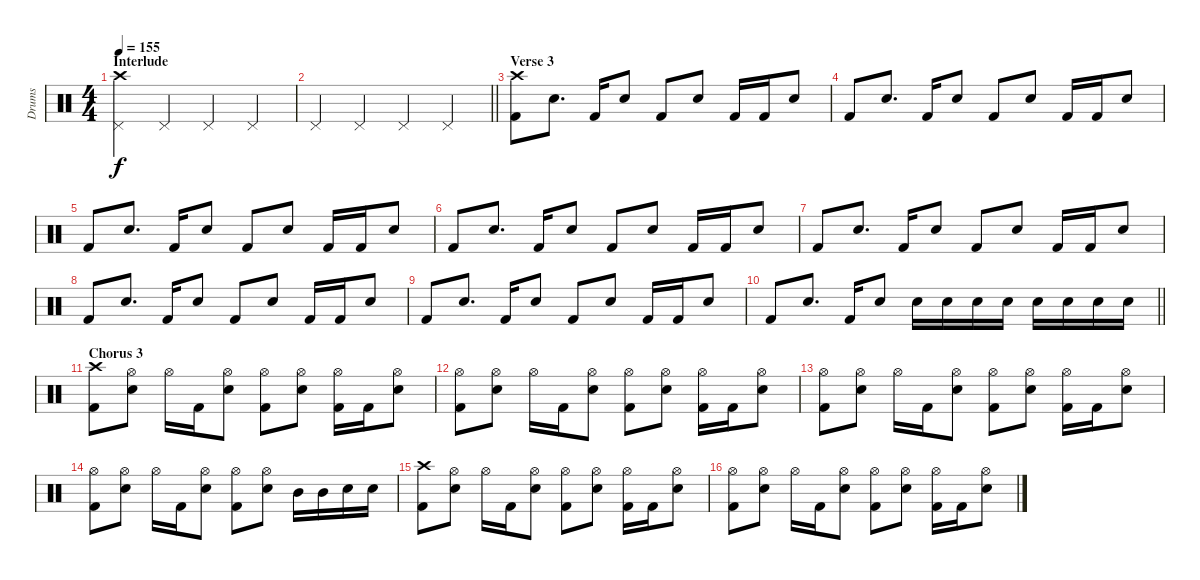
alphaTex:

\track ("Drums" "Drums") {instrument percussion}
\staff {score}
\articulation defaults
\ts (4 4)
\section ("" "Interlude")
\tempo 155
\clef neutral
\ks c
("Crash high (hit)" "Pedal Hi-Hat (hit)").4{dy f} "Pedal Hi-Hat (hit)".4 "Pedal Hi-Hat (hit)".4 "Pedal Hi-Hat (hit)".4 |
\barLineRight lightlight "Pedal Hi-Hat (hit)".4 "Pedal Hi-Hat (hit)".4 "Pedal Hi-Hat (hit)".4 "Pedal Hi-Hat (hit)".4
|
\section ("" "Verse 3")
("Crash high (hit)" "Kick (hit) 2").8 "Electric Snare (hit)".8{d} "Kick (hit) 2".16 "Electric Snare (hit)".8 "Kick (hit) 2".8 "Electric Snare (hit)".8 "Kick (hit) 2".16 "Kick (hit) 2".16 "Electric Snare (hit)".8 |
"Kick (hit) 2".8 "Electric Snare (hit)".8{d} "Kick (hit) 2".16 "Electric Snare (hit)".8 "Kick (hit) 2".8 "Electric Snare (hit)".8 "Kick (hit) 2".16 "Kick (hit) 2".16 "Electric Snare (hit)".8 |
"Kick (hit) 2".8 "Electric Snare (hit)".8{d} "Kick (hit) 2".16 "Electric Snare (hit)".8 "Kick (hit) 2".8 "Electric Snare (hit)".8 "Kick (hit) 2".16 "Kick (hit) 2".16 "Electric Snare (hit)".8 |
"Kick (hit) 2".8 "Electric Snare (hit)".8{d} "Kick (hit) 2".16 "Electric Snare (hit)".8 "Kick (hit) 2".8 "Electric Snare (hit)".8 "Kick (hit) 2".16 "Kick (hit) 2".16 "Electric Snare (hit)".8 |
"Kick (hit) 2".8 "Electric Snare (hit)".8{d} "Kick (hit) 2".16 "Electric Snare (hit)".8 "Kick (hit) 2".8 "Electric Snare (hit)".8 "Kick (hit) 2".16 "Kick (hit) 2".16 "Electric Snare (hit)".8 |
"Kick (hit) 2".8 "Electric Snare (hit)".8{d} "Kick (hit) 2".16 "Electric Snare (hit)".8 "Kick (hit) 2".8 "Electric Snare (hit)".8 "Kick (hit) 2".16 "Kick (hit) 2".16 "Electric Snare (hit)".8 |
"Kick (hit) 2".8 "Electric Snare (hit)".8{d} "Kick (hit) 2".16 "Electric Snare (hit)".8 "Kick (hit) 2".8 "Electric Snare (hit)".8 "Kick (hit) 2".16 "Kick (hit) 2".16 "Electric Snare (hit)".8 |
\barLineRight lightlight "Kick (hit) 2".8 "Electric Snare (hit)".8{d} "Kick (hit) 2".16 "Electric Snare (hit)".8 "Electric Snare (hit)".16 "Electric Snare (hit)".16 "Electric Snare (hit)".16 "Electric Snare (hit)".16 "Electric Snare (hit)".16 "Electric Snare (hit)".16 "Electric Snare (hit)".16 "Electric Snare (hit)".16
|
\section ("" "Chorus 3")
("Crash high (hit)" "Kick (hit) 2").8 ("Hi-Hat (open)" "Electric Snare (hit)").8 "Hi-Hat (open)".16 "Kick (hit) 2".16 ("Hi-Hat (open)" "Electric Snare (hit)").8 ("Hi-Hat (open)" "Kick (hit) 2").8 ("Hi-Hat (open)" "Electric Snare (hit)").8 ("Hi-Hat (open)" "Kick (hit) 2").16 "Kick (hit) 2".16 ("Hi-Hat (open)" "Electric Snare (hit)").8 |
("Hi-Hat (open)" "Kick (hit) 2").8 ("Hi-Hat (open)" "Electric Snare (hit)").8 "Hi-Hat (open)".16 "Kick (hit) 2".16 ("Hi-Hat (open)" "Electric Snare (hit)").8 ("Hi-Hat (open)" "Kick (hit) 2").8 ("Hi-Hat (open)" "Electric Snare (hit)").8 ("Hi-Hat (open)" "Kick (hit) 2").16 "Kick (hit) 2".16 ("Hi-Hat (open)" "Electric Snare (hit)").8 |
("Hi-Hat (open)" "Kick (hit) 2").8 ("Hi-Hat (open)" "Electric Snare (hit)").8 "Hi-Hat (open)".16 "Kick (hit) 2".16 ("Hi-Hat (open)" "Electric Snare (hit)").8 ("Hi-Hat (open)" "Kick (hit) 2").8 ("Hi-Hat (open)" "Electric Snare (hit)").8 ("Hi-Hat (open)" "Kick (hit) 2").16 "Kick (hit) 2".16 ("Hi-Hat (open)" "Electric Snare (hit)").8 |
("Hi-Hat (open)" "Kick (hit) 2").8 ("Hi-Hat (open)" "Electric Snare (hit)").8 "Hi-Hat (open)".16 "Kick (hit) 2".16 ("Hi-Hat (open)" "Electric Snare (hit)").8 ("Hi-Hat (open)" "Kick (hit) 2").8 ("Hi-Hat (open)" "Electric Snare (hit)").8 "Mid Tom (hit)".16 "Mid Tom (hit)".16 "Electric Snare (hit)".16 "Electric Snare (hit)".16 |
("Crash high (hit)" "Kick (hit) 2").8 ("Hi-Hat (open)" "Electric Snare (hit)").8 "Hi-Hat (open)".16 "Kick (hit) 2".16 ("Hi-Hat (open)" "Electric Snare (hit)").8 ("Hi-Hat (open)" "Kick (hit) 2").8 ("Hi-Hat (open)" "Electric Snare (hit)").8 ("Hi-Hat (open)" "Kick (hit) 2").16 "Kick (hit) 2".16 ("Hi-Hat (open)" "Electric Snare (hit)").8 |
("Hi-Hat (open)" "Kick (hit) 2").8 ("Hi-Hat (open)" "Electric Snare (hit)").8 "Hi-Hat (open)".16 "Kick (hit) 2".16 ("Hi-Hat (open)" "Electric Snare (hit)").8 ("Hi-Hat (open)" "Kick (hit) 2").8 ("Hi-Hat (open)" "Electric Snare (hit)").8 ("Hi-Hat (open)" "Kick (hit) 2").16 "Kick (hit) 2".16 ("Hi-Hat (open)" "Electric Snare (hit)").8
